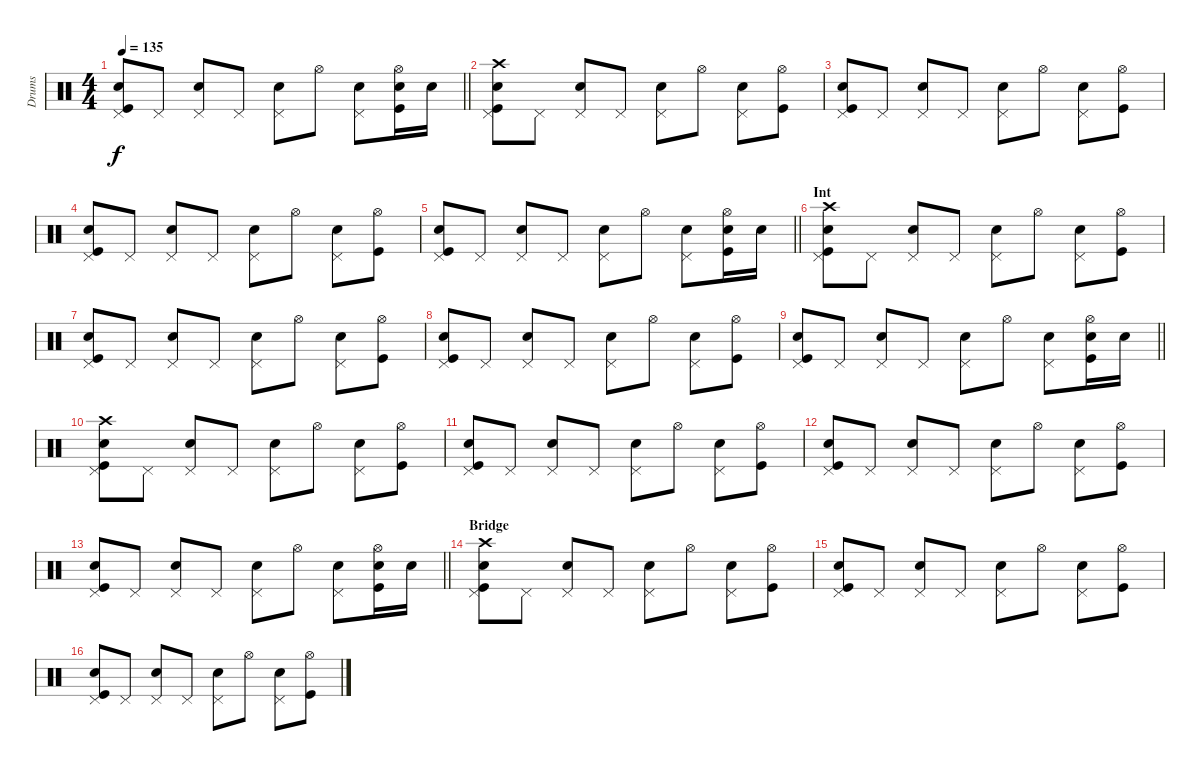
\track ("Drums" "Drums") {instrument percussion}
\staff {score}
\articulation defaults
\ts (4 4)
\tempo 135
\clef neutral
\barLineRight lightlight
\ks c
("Pedal Hi-Hat (hit)" "Kick (hit)" "Electric Snare (hit)").8{dy f} "Pedal Hi-Hat (hit)".8 ("Pedal Hi-Hat (hit)" "Electric Snare (hit)").8 "Pedal Hi-Hat (hit)".8 ("Pedal Hi-Hat (hit)" "Electric Snare (hit)").8 "Hi-Hat (open)".8 ("Pedal Hi-Hat (hit)" "Electric Snare (hit)").8 ("Hi-Hat (open)" "Kick (hit)" "Electric Snare (hit)").16 "Electric Snare (hit)".16 |
("Pedal Hi-Hat (hit)" "Kick (hit)" "Electric Snare (hit)" "Crash high (hit)").8 "Pedal Hi-Hat (hit)".8 ("Pedal Hi-Hat (hit)" "Electric Snare (hit)").8 "Pedal Hi-Hat (hit)".8 ("Pedal Hi-Hat (hit)" "Electric Snare (hit)").8 "Hi-Hat (open)".8 ("Pedal Hi-Hat (hit)" "Electric Snare (hit)").8 ("Hi-Hat (open)" "Kick (hit)").8 |
("Pedal Hi-Hat (hit)" "Kick (hit)" "Electric Snare (hit)").8 "Pedal Hi-Hat (hit)".8 ("Pedal Hi-Hat (hit)" "Electric Snare (hit)").8 "Pedal Hi-Hat (hit)".8 ("Pedal Hi-Hat (hit)" "Electric Snare (hit)").8 "Hi-Hat (open)".8 ("Pedal Hi-Hat (hit)" "Electric Snare (hit)").8 ("Hi-Hat (open)" "Kick (hit)").8 |
("Pedal Hi-Hat (hit)" "Kick (hit)" "Electric Snare (hit)").8 "Pedal Hi-Hat (hit)".8 ("Pedal Hi-Hat (hit)" "Electric Snare (hit)").8 "Pedal Hi-Hat (hit)".8 ("Pedal Hi-Hat (hit)" "Electric Snare (hit)").8 "Hi-Hat (open)".8 ("Pedal Hi-Hat (hit)" "Electric Snare (hit)").8 ("Hi-Hat (open)" "Kick (hit)").8 |
\barLineRight lightlight
("Pedal Hi-Hat (hit)" "Kick (hit)" "Electric Snare (hit)").8 "Pedal Hi-Hat (hit)".8 ("Pedal Hi-Hat (hit)" "Electric Snare (hit)").8 "Pedal Hi-Hat (hit)".8 ("Pedal Hi-Hat (hit)" "Electric Snare (hit)").8 "Hi-Hat (open)".8 ("Pedal Hi-Hat (hit)" "Electric Snare (hit)").8 ("Hi-Hat (open)" "Kick (hit)" "Electric Snare (hit)").16 "Electric Snare (hit)".16 |
\section ("" "Int")
("Pedal Hi-Hat (hit)" "Kick (hit)" "Electric Snare (hit)" "Crash high (hit)").8 "Pedal Hi-Hat (hit)".8 ("Pedal Hi-Hat (hit)" "Electric Snare (hit)").8 "Pedal Hi-Hat (hit)".8 ("Pedal Hi-Hat (hit)" "Electric Snare (hit)").8 "Hi-Hat (open)".8 ("Pedal Hi-Hat (hit)" "Electric Snare (hit)").8 ("Hi-Hat (open)" "Kick (hit)").8 |
("Pedal Hi-Hat (hit)" "Kick (hit)" "Electric Snare (hit)").8 "Pedal Hi-Hat (hit)".8 ("Pedal Hi-Hat (hit)" "Electric Snare (hit)").8 "Pedal Hi-Hat (hit)".8 ("Pedal Hi-Hat (hit)" "Electric Snare (hit)").8 "Hi-Hat (open)".8 ("Pedal Hi-Hat (hit)" "Electric Snare (hit)").8 ("Hi-Hat (open)" "Kick (hit)").8 |
("Pedal Hi-Hat (hit)" "Kick (hit)" "Electric Snare (hit)").8 "Pedal Hi-Hat (hit)".8 ("Pedal Hi-Hat (hit)" "Electric Snare (hit)").8 "Pedal Hi-Hat (hit)".8 ("Pedal Hi-Hat (hit)" "Electric Snare (hit)").8 "Hi-Hat (open)".8 ("Pedal Hi-Hat (hit)" "Electric Snare (hit)").8 ("Hi-Hat (open)" "Kick (hit)").8 |
\barLineRight lightlight
("Pedal Hi-Hat (hit)" "Kick (hit)" "Electric Snare (hit)").8 "Pedal Hi-Hat (hit)".8 ("Pedal Hi-Hat (hit)" "Electric Snare (hit)").8 "Pedal Hi-Hat (hit)".8 ("Pedal Hi-Hat (hit)" "Electric Snare (hit)").8 "Hi-Hat (open)".8 ("Pedal Hi-Hat (hit)" "Electric Snare (hit)").8 ("Hi-Hat (open)" "Kick (hit)" "Electric Snare (hit)").16 "Electric Snare (hit)".16 |
("Pedal Hi-Hat (hit)" "Kick (hit)" "Electric Snare (hit)" "Crash high (hit)").8 "Pedal Hi-Hat (hit)".8 ("Pedal Hi-Hat (hit)" "Electric Snare (hit)").8 "Pedal Hi-Hat (hit)".8 ("Pedal Hi-Hat (hit)" "Electric Snare (hit)").8 "Hi-Hat (open)".8 ("Pedal Hi-Hat (hit)" "Electric Snare (hit)").8 ("Hi-Hat (open)" "Kick (hit)").8 |
("Pedal Hi-Hat (hit)" "Kick (hit)" "Electric Snare (hit)").8 "Pedal Hi-Hat (hit)".8 ("Pedal Hi-Hat (hit)" "Electric Snare (hit)").8 "Pedal Hi-Hat (hit)".8 ("Pedal Hi-Hat (hit)" "Electric Snare (hit)").8 "Hi-Hat (open)".8 ("Pedal Hi-Hat (hit)" "Electric Snare (hit)").8 ("Hi-Hat (open)" "Kick (hit)").8 |
("Pedal Hi-Hat (hit)" "Kick (hit)" "Electric Snare (hit)").8 "Pedal Hi-Hat (hit)".8 ("Pedal Hi-Hat (hit)" "Electric Snare (hit)").8 "Pedal Hi-Hat (hit)".8 ("Pedal Hi-Hat (hit)" "Electric Snare (hit)").8 "Hi-Hat (open)".8 ("Pedal Hi-Hat (hit)" "Electric Snare (hit)").8 ("Hi-Hat (open)" "Kick (hit)").8 |
\barLineRight lightlight
("Pedal Hi-Hat (hit)" "Kick (hit)" "Electric Snare (hit)").8 "Pedal Hi-Hat (hit)".8 ("Pedal Hi-Hat (hit)" "Electric Snare (hit)").8 "Pedal Hi-Hat (hit)".8 ("Pedal Hi-Hat (hit)" "Electric Snare (hit)").8 "Hi-Hat (open)".8 ("Pedal Hi-Hat (hit)" "Electric Snare (hit)").8 ("Hi-Hat (open)" "Kick (hit)" "Electric Snare (hit)").16 "Electric Snare (hit)".16 |
\section ("" "Bridge")
("Pedal Hi-Hat (hit)" "Kick (hit)" "Electric Snare (hit)" "Crash high (hit)").8 "Pedal Hi-Hat (hit)".8 ("Pedal Hi-Hat (hit)" "Electric Snare (hit)").8 "Pedal Hi-Hat (hit)".8 ("Pedal Hi-Hat (hit)" "Electric Snare (hit)").8 "Hi-Hat (open)".8 ("Pedal Hi-Hat (hit)" "Electric Snare (hit)").8 ("Hi-Hat (open)" "Kick (hit)").8 |
("Pedal Hi-Hat (hit)" "Kick (hit)" "Electric Snare (hit)").8 "Pedal Hi-Hat (hit)".8 ("Pedal Hi-Hat (hit)" "Electric Snare (hit)").8 "Pedal Hi-Hat (hit)".8 ("Pedal Hi-Hat (hit)" "Electric Snare (hit)").8 "Hi-Hat (open)".8 ("Pedal Hi-Hat (hit)" "Electric Snare (hit)").8 ("Hi-Hat (open)" "Kick (hit)").8 |
("Pedal Hi-Hat (hit)" "Kick (hit)" "Electric Snare (hit)").8 "Pedal Hi-Hat (hit)".8 ("Pedal Hi-Hat (hit)" "Electric Snare (hit)").8 "Pedal Hi-Hat (hit)".8 ("Pedal Hi-Hat (hit)" "Electric Snare (hit)").8 "Hi-Hat (open)".8 ("Pedal Hi-Hat (hit)" "Electric Snare (hit)").8 ("Hi-Hat (open)" "Kick (hit)").8
